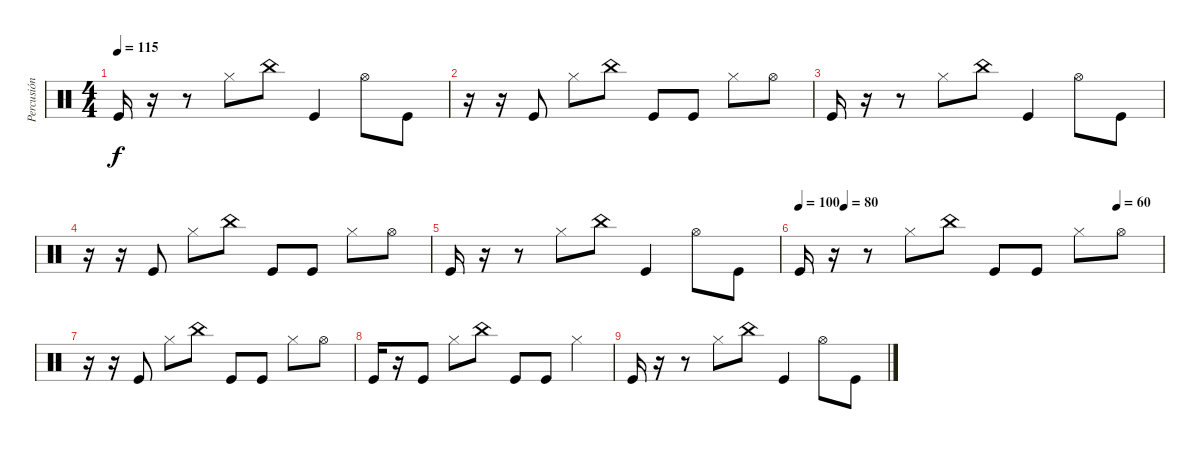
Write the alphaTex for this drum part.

\track ("Percusión" "Percusión") {instrument percussion}
\staff {score}
\articulation defaults
\ts (4 4)
\tempo 115
\clef neutral
\ks c "Kick (hit)".16{dy f}
r.16 r.8 "Hi-Hat (closed)".8 "China (hit)".8 "Kick (hit)".4 "Hi-Hat (open)".8 "Kick (hit)".8 |
r.16 r.16 "Kick (hit)".8 "Hi-Hat (closed)".8 "China (hit)".8 "Kick (hit)".8 "Kick (hit)".8 "Hi-Hat (closed)".8 "Hi-Hat (open)".8 |
"Kick (hit)".16 r.16 r.8 "Hi-Hat (closed)".8 "China (hit)".8 "Kick (hit)".4 "Hi-Hat (open)".8 "Kick (hit)".8 |
r.16 r.16 "Kick (hit)".8 "Hi-Hat (closed)".8 "China (hit)".8 "Kick (hit)".8 "Kick (hit)".8 "Hi-Hat (closed)".8 "Hi-Hat (open)".8 |
"Kick (hit)".16 r.16 r.8 "Hi-Hat (closed)".8 "China (hit)".8 "Kick (hit)".4 "Hi-Hat (open)".8 "Kick (hit)".8 |
\tempo 100
\tempo (80 0.125)
\tempo (60 0.875)
"Kick (hit)".16 r.16 r.8 "Hi-Hat (closed)".8 "China (hit)".8 "Kick (hit)".8 "Kick (hit)".8 "Hi-Hat (closed)".8 "Hi-Hat (open)".8 |
r.16 r.16 "Kick (hit)".8 "Hi-Hat (closed)".8 "China (hit)".8 "Kick (hit)".8 "Kick (hit)".8 "Hi-Hat (closed)".8 "Hi-Hat (open)".8 |
"Kick (hit)".16 r.16 "Kick (hit)".8 "Hi-Hat (closed)".8 "China (hit)".8 "Kick (hit)".8 "Kick (hit)".8 "Hi-Hat (closed)".4 |
"Kick (hit)".16 r.16 r.8 "Hi-Hat (closed)".8 "China (hit)".8 "Kick (hit)".4 "Hi-Hat (open)".8 "Kick (hit)".8
